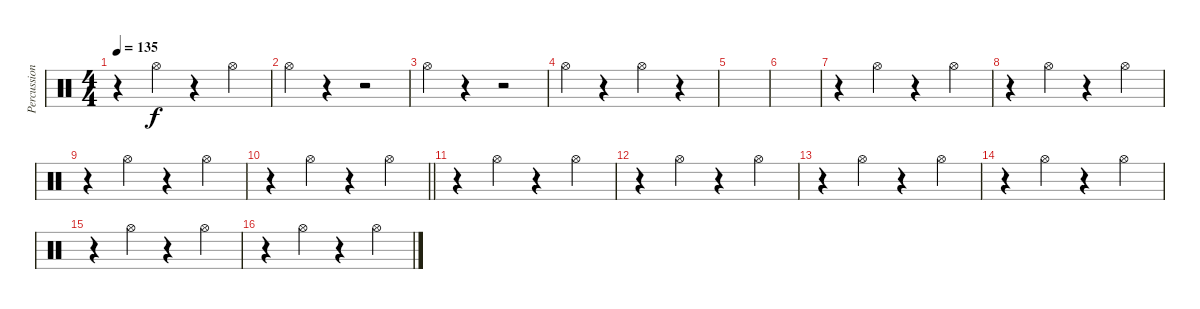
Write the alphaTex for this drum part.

\track ("Percussions 1" "Percussion") {instrument percussion}
\staff {score}
\articulation defaults
\ts (4 4)
\tempo 135
\clef neutral
\ks c
r.4{dy f} "Hi-Hat (open)".4 r.4 "Hi-Hat (open)".4 |
"Hi-Hat (open)".4 r.4 r.2 |
"Hi-Hat (open)".4 r.4 r.2 |
"Hi-Hat (open)".4 r.4 "Hi-Hat (open)".4 r.4 |
|
|
r.4 "Hi-Hat (open)".4 r.4 "Hi-Hat (open)".4 |
r.4 "Hi-Hat (open)".4 r.4 "Hi-Hat (open)".4 |
r.4 "Hi-Hat (open)".4 r.4 "Hi-Hat (open)".4 |
\barLineRight lightlight
r.4 "Hi-Hat (open)".4 r.4 "Hi-Hat (open)".4 |
r.4 "Hi-Hat (open)".4 r.4 "Hi-Hat (open)".4 |
r.4 "Hi-Hat (open)".4 r.4 "Hi-Hat (open)".4 |
r.4 "Hi-Hat (open)".4 r.4 "Hi-Hat (open)".4 |
r.4 "Hi-Hat (open)".4 r.4 "Hi-Hat (open)".4 |
r.4 "Hi-Hat (open)".4 r.4 "Hi-Hat (open)".4 |
r.4 "Hi-Hat (open)".4 r.4 "Hi-Hat (open)".4
